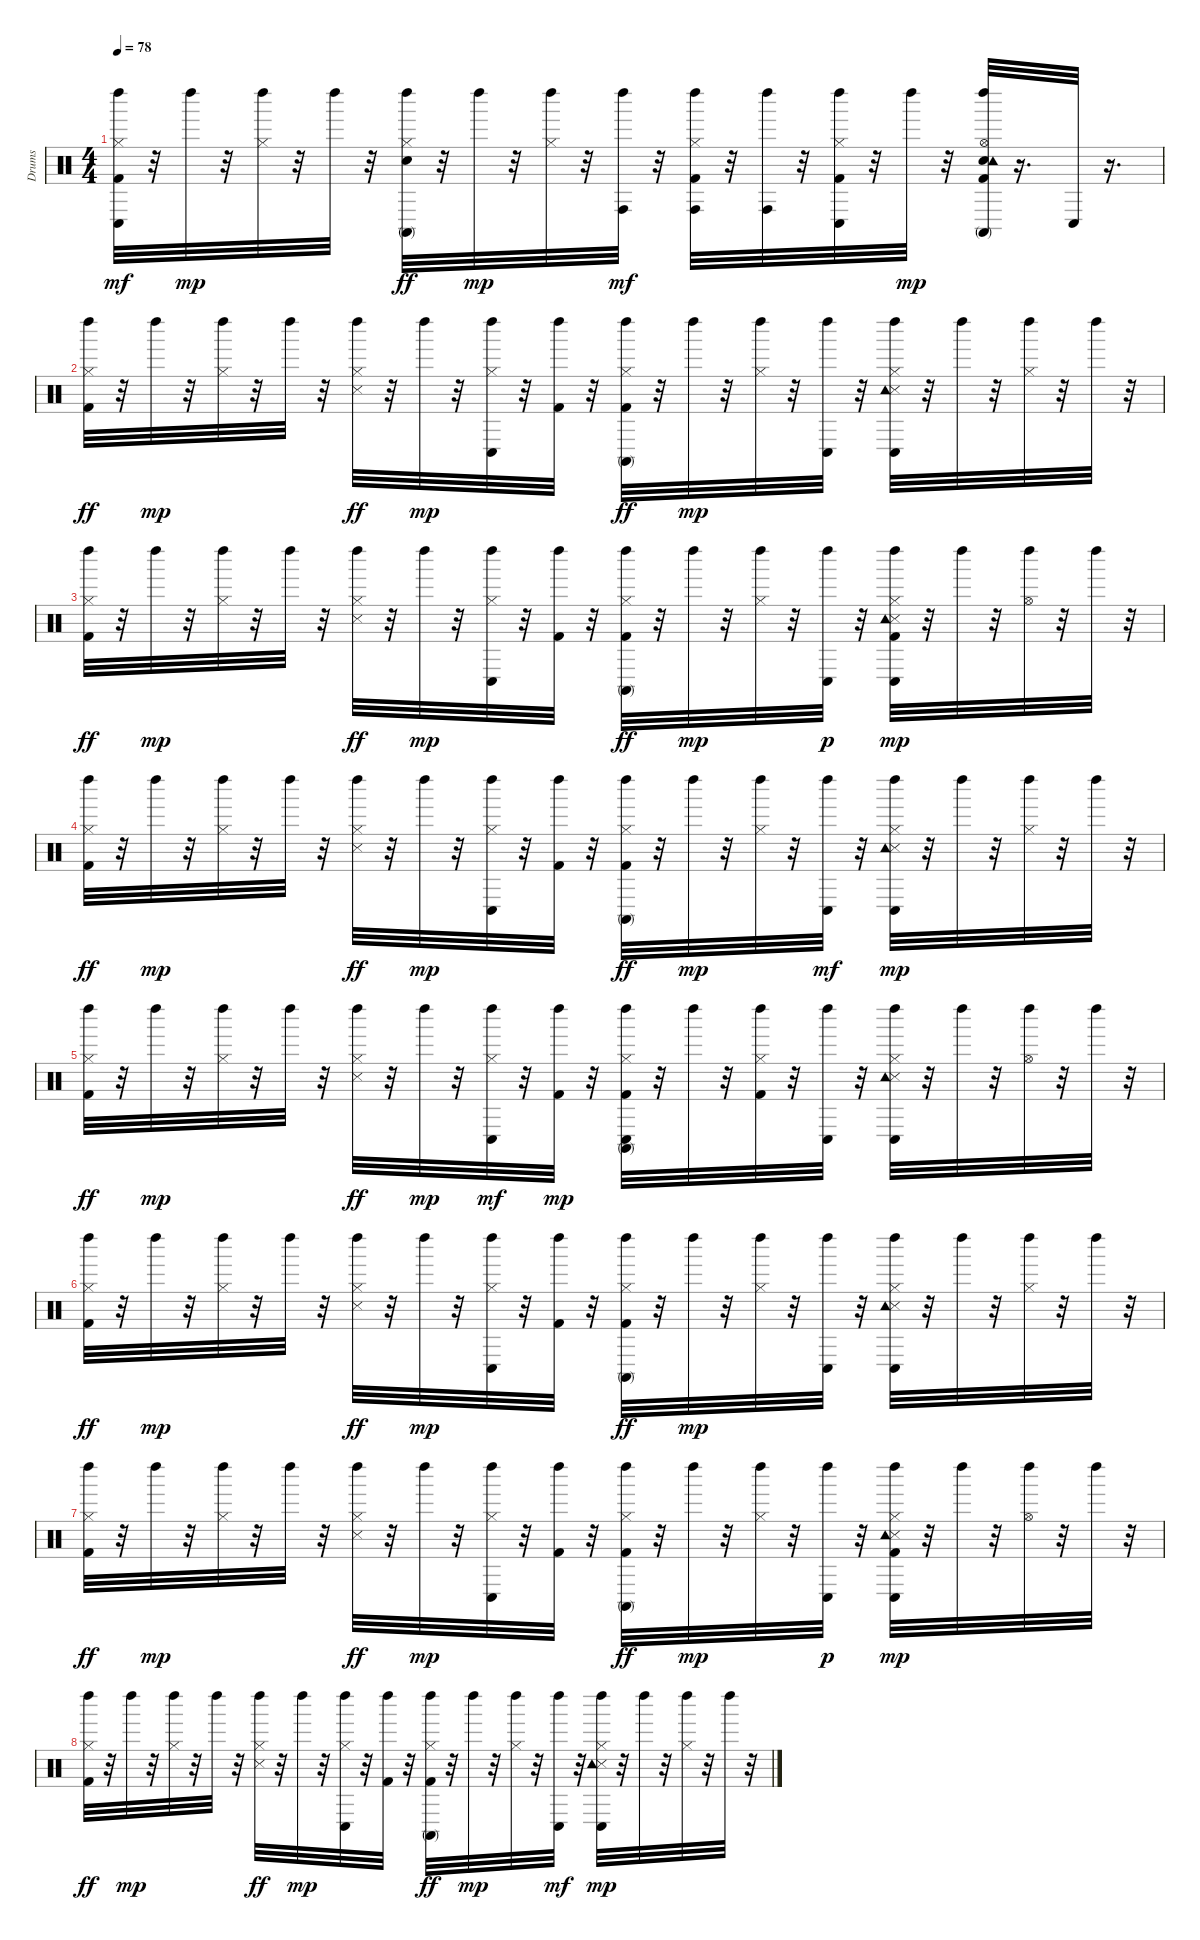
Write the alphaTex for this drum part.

\track ("Drums               " "Drums     ") {instrument percussion}
\staff {score}
\articulation defaults
\ts (4 4)
\tempo 78
\clef neutral
\ks c
("Kick (hit) 2" "Hi-Hat (closed)" "Left Maraca (hit)" "Conga low (hit)").32{dy mf} r.32 "Left Maraca (hit)".32{dy mp} r.32 ("Hi-Hat (closed)" "Left Maraca (hit)").32 r.32 "Left Maraca (hit)".32 r.32 ("Snare (hit) 2" "Hi-Hat (closed)" "Left Maraca (hit)" "Conga high (mute)").32{dy ff} r.32 "Left Maraca (hit)".32{dy mp} r.32 ("Hi-Hat (closed)" "Left Maraca (hit)").32 r.32 ("Left Maraca (hit)" "Conga high (hit)").32{dy mf} r.32 ("Kick (hit) 2" "Hi-Hat (closed)" "Left Maraca (hit)" "Conga high (hit)").32 r.32 ("Left Maraca (hit)" "Conga high (hit)").32 r.32 ("Kick (hit) 2" "Hi-Hat (closed)" "Left Maraca (hit)" "Conga low (hit)").32 r.32 "Left Maraca (hit)".32{dy mp} r.32 ("Kick (hit) 2" "Snare (hit) 2" "Hi-Hat (open)" "Conga high (mute)" "Left Maraca (hit)" "Tambourine (hit)").32 r.16{d} "Conga low (hit)".32 r.16{d} |
("Kick (hit) 2" "Hi-Hat (closed)" "Left Maraca (hit)").32{dy ff} r.32 "Left Maraca (hit)".32{dy mp} r.32 ("Hi-Hat (closed)" "Left Maraca (hit)").32 r.32 "Left Maraca (hit)".32 r.32 ("Hi-Hat (closed)" "Left Maraca (hit)" "Snare (side stick) 3").32{dy ff} r.32 "Left Maraca (hit)".32{dy mp} r.32 ("Hi-Hat (closed)" "Left Maraca (hit)" "Conga low (hit)").32 r.32 ("Kick (hit) 2" "Left Maraca (hit)").32 r.32 ("Kick (hit) 2" "Hi-Hat (closed)" "Left Maraca (hit)" "Conga high (mute)").32{dy ff} r.32 "Left Maraca (hit)".32{dy mp} r.32 ("Hi-Hat (closed)" "Left Maraca (hit)").32 r.32 ("Left Maraca (hit)" "Conga low (hit)").32 r.32 ("Hi-Hat (closed)" "Left Maraca (hit)" "Snare (side stick) 3" "Tambourine (hit)" "Conga low (hit)").32 r.32 "Left Maraca (hit)".32 r.32 ("Hi-Hat (closed)" "Left Maraca (hit)").32 r.32 "Left Maraca (hit)".32 r.32 |
("Kick (hit) 2" "Hi-Hat (closed)" "Left Maraca (hit)").32{dy ff} r.32 "Left Maraca (hit)".32{dy mp} r.32 ("Hi-Hat (closed)" "Left Maraca (hit)").32 r.32 "Left Maraca (hit)".32 r.32 ("Hi-Hat (closed)" "Left Maraca (hit)" "Snare (side stick) 3").32{dy ff} r.32 "Left Maraca (hit)".32{dy mp} r.32 ("Hi-Hat (closed)" "Left Maraca (hit)" "Conga low (hit)").32 r.32 ("Kick (hit) 2" "Left Maraca (hit)").32 r.32 ("Kick (hit) 2" "Hi-Hat (closed)" "Left Maraca (hit)" "Conga high (mute)").32{dy ff} r.32 "Left Maraca (hit)".32{dy mp} r.32 ("Hi-Hat (closed)" "Left Maraca (hit)").32 r.32 ("Left Maraca (hit)" "Conga low (hit)").32{dy p} r.32 ("Kick (hit) 2" "Hi-Hat (closed)" "Left Maraca (hit)" "Snare (side stick) 3" "Tambourine (hit)" "Conga low (hit)").32{dy mp} r.32 "Left Maraca (hit)".32 r.32 ("Hi-Hat (open)" "Left Maraca (hit)").32 r.32 "Left Maraca (hit)".32 r.32 |
("Kick (hit) 2" "Hi-Hat (closed)" "Left Maraca (hit)").32{dy ff} r.32 "Left Maraca (hit)".32{dy mp} r.32 ("Hi-Hat (closed)" "Left Maraca (hit)").32 r.32 "Left Maraca (hit)".32 r.32 ("Hi-Hat (closed)" "Left Maraca (hit)" "Snare (side stick) 3").32{dy ff} r.32 "Left Maraca (hit)".32{dy mp} r.32 ("Hi-Hat (closed)" "Left Maraca (hit)" "Conga low (hit)").32 r.32 ("Kick (hit) 2" "Left Maraca (hit)").32 r.32 ("Kick (hit) 2" "Hi-Hat (closed)" "Left Maraca (hit)" "Conga high (mute)").32{dy ff} r.32 "Left Maraca (hit)".32{dy mp} r.32 ("Hi-Hat (closed)" "Left Maraca (hit)").32 r.32 ("Left Maraca (hit)" "Conga low (hit)").32{dy mf} r.32 ("Hi-Hat (closed)" "Left Maraca (hit)" "Snare (side stick) 3" "Tambourine (hit)" "Conga low (hit)").32{dy mp} r.32 "Left Maraca (hit)".32 r.32 ("Hi-Hat (closed)" "Left Maraca (hit)").32 r.32 "Left Maraca (hit)".32 r.32 |
("Kick (hit) 2" "Hi-Hat (closed)" "Left Maraca (hit)").32{dy ff} r.32 "Left Maraca (hit)".32{dy mp} r.32 ("Hi-Hat (closed)" "Left Maraca (hit)").32 r.32 "Left Maraca (hit)".32 r.32 ("Hi-Hat (closed)" "Left Maraca (hit)" "Snare (side stick) 3").32{dy ff} r.32 "Left Maraca (hit)".32{dy mp} r.32 ("Hi-Hat (closed)" "Left Maraca (hit)" "Conga low (hit)").32{dy mf} r.32 ("Kick (hit) 2" "Left Maraca (hit)").32{dy mp} r.32 ("Kick (hit) 2" "Hi-Hat (closed)" "Left Maraca (hit)" "Conga high (mute)" "Conga low (hit)").32 r.32 "Left Maraca (hit)".32 r.32 ("Kick (hit) 2" "Hi-Hat (closed)" "Left Maraca (hit)").32 r.32 ("Left Maraca (hit)" "Conga low (hit)").32 r.32 ("Hi-Hat (closed)" "Left Maraca (hit)" "Snare (side stick) 3" "Tambourine (hit)" "Conga low (hit)").32 r.32 "Left Maraca (hit)".32 r.32 ("Hi-Hat (open)" "Left Maraca (hit)").32 r.32 "Left Maraca (hit)".32 r.32 |
("Kick (hit) 2" "Hi-Hat (closed)" "Left Maraca (hit)").32{dy ff} r.32 "Left Maraca (hit)".32{dy mp} r.32 ("Hi-Hat (closed)" "Left Maraca (hit)").32 r.32 "Left Maraca (hit)".32 r.32 ("Hi-Hat (closed)" "Left Maraca (hit)" "Snare (side stick) 3").32{dy ff} r.32 "Left Maraca (hit)".32{dy mp} r.32 ("Hi-Hat (closed)" "Left Maraca (hit)" "Conga low (hit)").32 r.32 ("Kick (hit) 2" "Left Maraca (hit)").32 r.32 ("Kick (hit) 2" "Hi-Hat (closed)" "Left Maraca (hit)" "Conga high (mute)").32{dy ff} r.32 "Left Maraca (hit)".32{dy mp} r.32 ("Hi-Hat (closed)" "Left Maraca (hit)").32 r.32 ("Left Maraca (hit)" "Conga low (hit)").32 r.32 ("Hi-Hat (closed)" "Left Maraca (hit)" "Snare (side stick) 3" "Tambourine (hit)" "Conga low (hit)").32 r.32 "Left Maraca (hit)".32 r.32 ("Hi-Hat (closed)" "Left Maraca (hit)").32 r.32 "Left Maraca (hit)".32 r.32 |
("Kick (hit) 2" "Hi-Hat (closed)" "Left Maraca (hit)").32{dy ff} r.32 "Left Maraca (hit)".32{dy mp} r.32 ("Hi-Hat (closed)" "Left Maraca (hit)").32 r.32 "Left Maraca (hit)".32 r.32 ("Hi-Hat (closed)" "Left Maraca (hit)" "Snare (side stick) 3").32{dy ff} r.32 "Left Maraca (hit)".32{dy mp} r.32 ("Hi-Hat (closed)" "Left Maraca (hit)" "Conga low (hit)").32 r.32 ("Kick (hit) 2" "Left Maraca (hit)").32 r.32 ("Kick (hit) 2" "Hi-Hat (closed)" "Left Maraca (hit)" "Conga high (mute)").32{dy ff} r.32 "Left Maraca (hit)".32{dy mp} r.32 ("Hi-Hat (closed)" "Left Maraca (hit)").32 r.32 ("Left Maraca (hit)" "Conga low (hit)").32{dy p} r.32 ("Kick (hit) 2" "Hi-Hat (closed)" "Left Maraca (hit)" "Snare (side stick) 3" "Tambourine (hit)" "Conga low (hit)").32{dy mp} r.32 "Left Maraca (hit)".32 r.32 ("Hi-Hat (open)" "Left Maraca (hit)").32 r.32 "Left Maraca (hit)".32 r.32 |
("Kick (hit) 2" "Hi-Hat (closed)" "Left Maraca (hit)").32{dy ff} r.32 "Left Maraca (hit)".32{dy mp} r.32 ("Hi-Hat (closed)" "Left Maraca (hit)").32 r.32 "Left Maraca (hit)".32 r.32 ("Hi-Hat (closed)" "Left Maraca (hit)" "Snare (side stick) 3").32{dy ff} r.32 "Left Maraca (hit)".32{dy mp} r.32 ("Hi-Hat (closed)" "Left Maraca (hit)" "Conga low (hit)").32 r.32 ("Kick (hit) 2" "Left Maraca (hit)").32 r.32 ("Kick (hit) 2" "Hi-Hat (closed)" "Left Maraca (hit)" "Conga high (mute)").32{dy ff} r.32 "Left Maraca (hit)".32{dy mp} r.32 ("Hi-Hat (closed)" "Left Maraca (hit)").32 r.32 ("Left Maraca (hit)" "Conga low (hit)").32{dy mf} r.32 ("Hi-Hat (closed)" "Left Maraca (hit)" "Snare (side stick) 3" "Tambourine (hit)" "Conga low (hit)").32{dy mp} r.32 "Left Maraca (hit)".32 r.32 ("Hi-Hat (closed)" "Left Maraca (hit)").32 r.32 "Left Maraca (hit)".32 r.32
